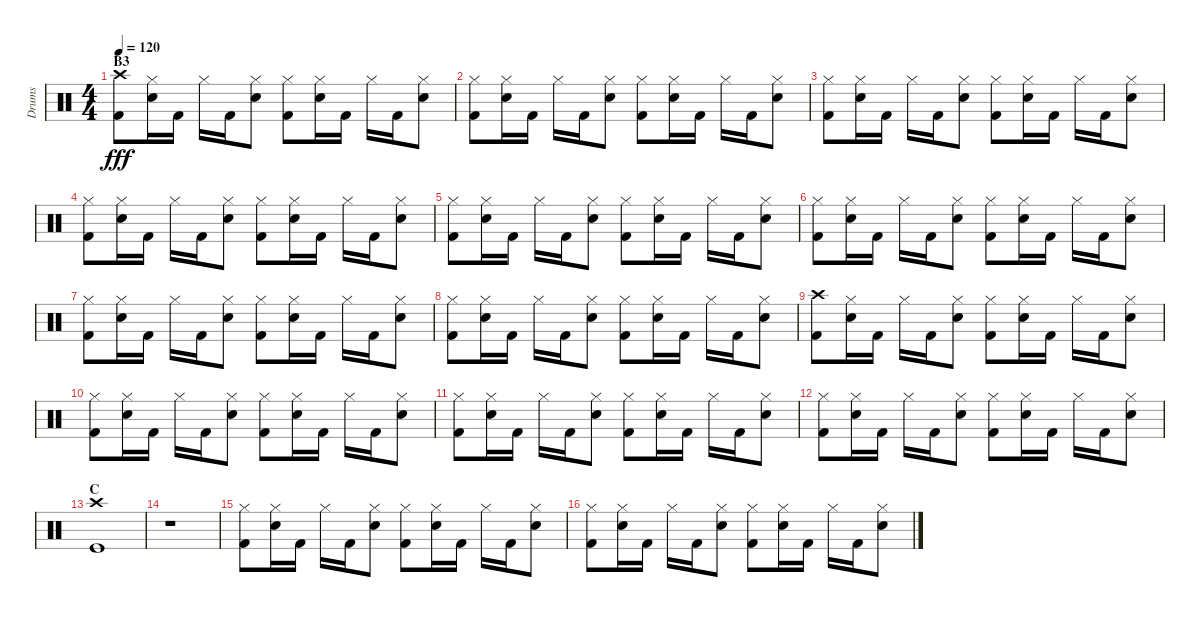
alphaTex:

\track ("Drums" "Drums") {instrument percussion}
\staff {score}
\articulation defaults
\ts (4 4)
\section ("" "B3")
\tempo 120
\clef neutral
\ks c
("Crash high (hit)" "Kick (hit) 2").8{dy fff} ("Hi-Hat (closed)" "Snare (hit) 2").16 "Kick (hit) 2".16 "Hi-Hat (closed)".16 "Kick (hit) 2".16 ("Hi-Hat (closed)" "Snare (hit) 2").8 ("Hi-Hat (closed)" "Kick (hit) 2").8 ("Hi-Hat (closed)" "Snare (hit) 2").16 "Kick (hit) 2".16 "Hi-Hat (closed)".16 "Kick (hit) 2".16 ("Hi-Hat (closed)" "Snare (hit) 2").8 |
("Hi-Hat (closed)" "Kick (hit) 2").8 ("Hi-Hat (closed)" "Snare (hit) 2").16 "Kick (hit) 2".16 "Hi-Hat (closed)".16 "Kick (hit) 2".16 ("Hi-Hat (closed)" "Snare (hit) 2").8 ("Hi-Hat (closed)" "Kick (hit) 2").8 ("Hi-Hat (closed)" "Snare (hit) 2").16 "Kick (hit) 2".16 "Hi-Hat (closed)".16 "Kick (hit) 2".16 ("Hi-Hat (closed)" "Snare (hit) 2").8 |
("Hi-Hat (closed)" "Kick (hit) 2").8 ("Hi-Hat (closed)" "Snare (hit) 2").16 "Kick (hit) 2".16 "Hi-Hat (closed)".16 "Kick (hit) 2".16 ("Hi-Hat (closed)" "Snare (hit) 2").8 ("Hi-Hat (closed)" "Kick (hit) 2").8 ("Hi-Hat (closed)" "Snare (hit) 2").16 "Kick (hit) 2".16 "Hi-Hat (closed)".16 "Kick (hit) 2".16 ("Hi-Hat (closed)" "Snare (hit) 2").8 |
("Hi-Hat (closed)" "Kick (hit) 2").8 ("Hi-Hat (closed)" "Snare (hit) 2").16 "Kick (hit) 2".16 "Hi-Hat (closed)".16 "Kick (hit) 2".16 ("Hi-Hat (closed)" "Snare (hit) 2").8 ("Hi-Hat (closed)" "Kick (hit) 2").8 ("Hi-Hat (closed)" "Snare (hit) 2").16 "Kick (hit) 2".16 "Hi-Hat (closed)".16 "Kick (hit) 2".16 ("Hi-Hat (closed)" "Snare (hit) 2").8 |
("Hi-Hat (closed)" "Kick (hit) 2").8 ("Hi-Hat (closed)" "Snare (hit) 2").16 "Kick (hit) 2".16 "Hi-Hat (closed)".16 "Kick (hit) 2".16 ("Hi-Hat (closed)" "Snare (hit) 2").8 ("Hi-Hat (closed)" "Kick (hit) 2").8 ("Hi-Hat (closed)" "Snare (hit) 2").16 "Kick (hit) 2".16 "Hi-Hat (closed)".16 "Kick (hit) 2".16 ("Hi-Hat (closed)" "Snare (hit) 2").8 |
("Hi-Hat (closed)" "Kick (hit) 2").8 ("Hi-Hat (closed)" "Snare (hit) 2").16 "Kick (hit) 2".16 "Hi-Hat (closed)".16 "Kick (hit) 2".16 ("Hi-Hat (closed)" "Snare (hit) 2").8 ("Hi-Hat (closed)" "Kick (hit) 2").8 ("Hi-Hat (closed)" "Snare (hit) 2").16 "Kick (hit) 2".16 "Hi-Hat (closed)".16 "Kick (hit) 2".16 ("Hi-Hat (closed)" "Snare (hit) 2").8 |
("Hi-Hat (closed)" "Kick (hit) 2").8 ("Hi-Hat (closed)" "Snare (hit) 2").16 "Kick (hit) 2".16 "Hi-Hat (closed)".16 "Kick (hit) 2".16 ("Hi-Hat (closed)" "Snare (hit) 2").8 ("Hi-Hat (closed)" "Kick (hit) 2").8 ("Hi-Hat (closed)" "Snare (hit) 2").16 "Kick (hit) 2".16 "Hi-Hat (closed)".16 "Kick (hit) 2".16 ("Hi-Hat (closed)" "Snare (hit) 2").8 |
("Hi-Hat (closed)" "Kick (hit) 2").8 ("Hi-Hat (closed)" "Snare (hit) 2").16 "Kick (hit) 2".16 "Hi-Hat (closed)".16 "Kick (hit) 2".16 ("Hi-Hat (closed)" "Snare (hit) 2").8 ("Hi-Hat (closed)" "Kick (hit) 2").8 ("Hi-Hat (closed)" "Snare (hit) 2").16 "Kick (hit) 2".16 "Hi-Hat (closed)".16 "Kick (hit) 2".16 ("Hi-Hat (closed)" "Snare (hit) 2").8 |
("Crash high (hit)" "Kick (hit) 2").8 ("Hi-Hat (closed)" "Snare (hit) 2").16 "Kick (hit) 2".16 "Hi-Hat (closed)".16 "Kick (hit) 2".16 ("Hi-Hat (closed)" "Snare (hit) 2").8 ("Hi-Hat (closed)" "Kick (hit) 2").8 ("Hi-Hat (closed)" "Snare (hit) 2").16 "Kick (hit) 2".16 "Hi-Hat (closed)".16 "Kick (hit) 2".16 ("Hi-Hat (closed)" "Snare (hit) 2").8 |
("Hi-Hat (closed)" "Kick (hit) 2").8 ("Hi-Hat (closed)" "Snare (hit) 2").16 "Kick (hit) 2".16 "Hi-Hat (closed)".16 "Kick (hit) 2".16 ("Hi-Hat (closed)" "Snare (hit) 2").8 ("Hi-Hat (closed)" "Kick (hit) 2").8 ("Hi-Hat (closed)" "Snare (hit) 2").16 "Kick (hit) 2".16 "Hi-Hat (closed)".16 "Kick (hit) 2".16 ("Hi-Hat (closed)" "Snare (hit) 2").8 |
("Hi-Hat (closed)" "Kick (hit) 2").8 ("Hi-Hat (closed)" "Snare (hit) 2").16 "Kick (hit) 2".16 "Hi-Hat (closed)".16 "Kick (hit) 2".16 ("Hi-Hat (closed)" "Snare (hit) 2").8 ("Hi-Hat (closed)" "Kick (hit) 2").8 ("Hi-Hat (closed)" "Snare (hit) 2").16 "Kick (hit) 2".16 "Hi-Hat (closed)".16 "Kick (hit) 2".16 ("Hi-Hat (closed)" "Snare (hit) 2").8 |
("Hi-Hat (closed)" "Kick (hit) 2").8 ("Hi-Hat (closed)" "Snare (hit) 2").16 "Kick (hit) 2".16 "Hi-Hat (closed)".16 "Kick (hit) 2".16 ("Hi-Hat (closed)" "Snare (hit) 2").8 ("Hi-Hat (closed)" "Kick (hit) 2").8 ("Hi-Hat (closed)" "Snare (hit) 2").16 "Kick (hit) 2".16 "Hi-Hat (closed)".16 "Kick (hit) 2".16 ("Hi-Hat (closed)" "Snare (hit) 2").8 |
\section ("" "C")
("Crash high (hit)" "Kick (hit)").1 |
r.1 |
("Hi-Hat (closed)" "Kick (hit) 2").8 ("Hi-Hat (closed)" "Snare (hit) 2").16 "Kick (hit) 2".16 "Hi-Hat (closed)".16 "Kick (hit) 2".16 ("Hi-Hat (closed)" "Snare (hit) 2").8 ("Hi-Hat (closed)" "Kick (hit) 2").8 ("Hi-Hat (closed)" "Snare (hit) 2").16 "Kick (hit) 2".16 "Hi-Hat (closed)".16 "Kick (hit) 2".16 ("Hi-Hat (closed)" "Snare (hit) 2").8 |
("Hi-Hat (closed)" "Kick (hit) 2").8 ("Hi-Hat (closed)" "Snare (hit) 2").16 "Kick (hit) 2".16 "Hi-Hat (closed)".16 "Kick (hit) 2".16 ("Hi-Hat (closed)" "Snare (hit) 2").8 ("Hi-Hat (closed)" "Kick (hit) 2").8 ("Hi-Hat (closed)" "Snare (hit) 2").16 "Kick (hit) 2".16 "Hi-Hat (closed)".16 "Kick (hit) 2".16 ("Hi-Hat (closed)" "Snare (hit) 2").8
